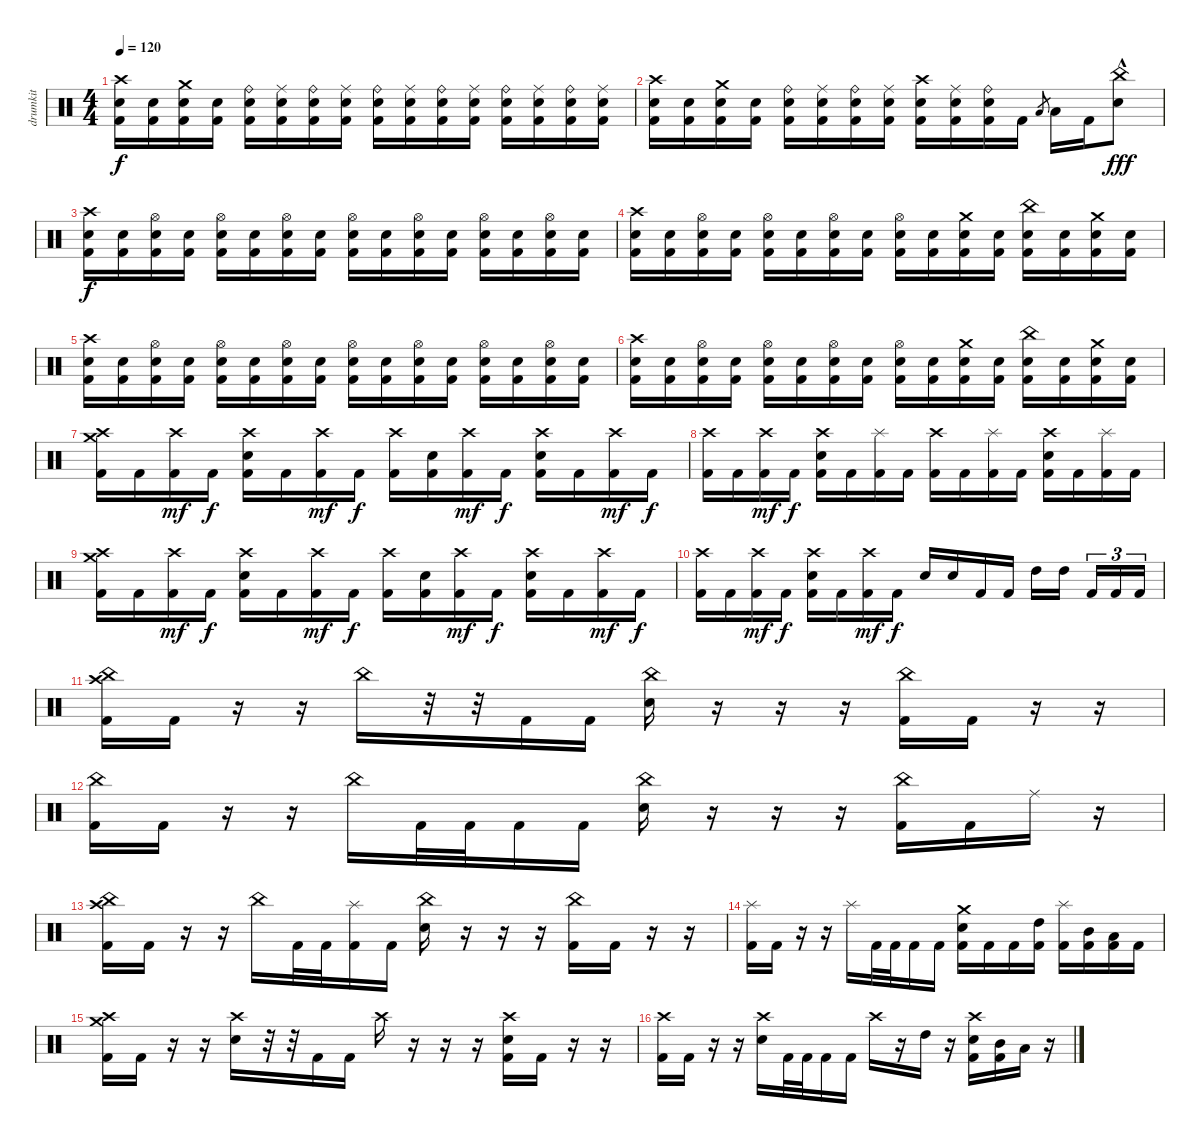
\track ("drumkit" "drumkit") {instrument percussion}
\staff {score}
\articulation defaults
\ts (4 4)
\tempo 120
\clef neutral
\ks c
("Crash high (hit)" "Electric Snare (hit)" "Kick (hit) 2").16{dy f} ("Electric Snare (hit)" "Kick (hit) 2").16 ("Crash medium (hit)" "Electric Snare (hit)" "Kick (hit) 2").16 ("Electric Snare (hit)" "Kick (hit) 2").16 ("Ride (bell)" "Electric Snare (hit)" "Kick (hit) 2").16 ("Ride (middle)" "Electric Snare (hit)" "Kick (hit) 2").16 ("Ride (bell)" "Electric Snare (hit)" "Kick (hit) 2").16 ("Ride (middle)" "Electric Snare (hit)" "Kick (hit) 2").16 ("Ride (bell)" "Electric Snare (hit)" "Kick (hit) 2").16 ("Ride (middle)" "Electric Snare (hit)" "Kick (hit) 2").16 ("Ride (bell)" "Electric Snare (hit)" "Kick (hit) 2").16 ("Ride (middle)" "Electric Snare (hit)" "Kick (hit) 2").16 ("Ride (bell)" "Electric Snare (hit)" "Kick (hit) 2").16 ("Ride (middle)" "Electric Snare (hit)" "Kick (hit) 2").16 ("Ride (bell)" "Electric Snare (hit)" "Kick (hit) 2").16 ("Ride (middle)" "Electric Snare (hit)" "Kick (hit) 2").16 |
("Crash high (hit)" "Electric Snare (hit)" "Kick (hit) 2").16 ("Electric Snare (hit)" "Kick (hit) 2").16 ("Crash medium (hit)" "Electric Snare (hit)" "Kick (hit) 2").16 ("Electric Snare (hit)" "Kick (hit) 2").16 ("Ride (bell)" "Electric Snare (hit)" "Kick (hit) 2").16 ("Ride (middle)" "Electric Snare (hit)" "Kick (hit) 2").16 ("Ride (bell)" "Electric Snare (hit)" "Kick (hit) 2").16 ("Ride (middle)" "Electric Snare (hit)" "Kick (hit) 2").16 ("Crash high (hit)" "Electric Snare (hit)" "Kick (hit) 2").16 ("Ride (middle)" "Electric Snare (hit)" "Kick (hit) 2").16 ("Ride (bell)" "Electric Snare (hit)" "Kick (hit) 2").16 "Kick (hit) 2".16 "Low Tom (hit)".8{gr} "Low Floor Tom (hit)".16 "Kick (hit) 2".16 ("China (hit)" "Electric Snare (hit)"{hac}).8{dy fff} |
("Crash high (hit)" "Electric Snare (hit)" "Kick (hit) 2").16{dy f} ("Electric Snare (hit)" "Kick (hit) 2").16 ("Hi-Hat (open)" "Electric Snare (hit)" "Kick (hit) 2").16 ("Electric Snare (hit)" "Kick (hit) 2").16 ("Hi-Hat (open)" "Electric Snare (hit)" "Kick (hit) 2").16 ("Electric Snare (hit)" "Kick (hit) 2").16 ("Hi-Hat (open)" "Electric Snare (hit)" "Kick (hit) 2").16 ("Electric Snare (hit)" "Kick (hit) 2").16 ("Hi-Hat (open)" "Electric Snare (hit)" "Kick (hit) 2").16 ("Electric Snare (hit)" "Kick (hit) 2").16 ("Hi-Hat (open)" "Electric Snare (hit)" "Kick (hit) 2").16 ("Electric Snare (hit)" "Kick (hit) 2").16 ("Hi-Hat (open)" "Electric Snare (hit)" "Kick (hit) 2").16 ("Electric Snare (hit)" "Kick (hit) 2").16 ("Hi-Hat (open)" "Electric Snare (hit)" "Kick (hit) 2").16 ("Electric Snare (hit)" "Kick (hit) 2").16 |
("Crash high (hit)" "Electric Snare (hit)" "Kick (hit) 2").16 ("Electric Snare (hit)" "Kick (hit) 2").16 ("Hi-Hat (open)" "Electric Snare (hit)" "Kick (hit) 2").16 ("Electric Snare (hit)" "Kick (hit) 2").16 ("Hi-Hat (open)" "Electric Snare (hit)" "Kick (hit) 2").16 ("Electric Snare (hit)" "Kick (hit) 2").16 ("Hi-Hat (open)" "Electric Snare (hit)" "Kick (hit) 2").16 ("Electric Snare (hit)" "Kick (hit) 2").16 ("Hi-Hat (open)" "Electric Snare (hit)" "Kick (hit) 2").16 ("Electric Snare (hit)" "Kick (hit) 2").16 ("Crash medium (hit)" "Electric Snare (hit)" "Kick (hit) 2").16 ("Electric Snare (hit)" "Kick (hit) 2").16 ("China (hit)" "Electric Snare (hit)" "Kick (hit) 2").16 ("Electric Snare (hit)" "Kick (hit) 2").16 ("Crash medium (hit)" "Electric Snare (hit)" "Kick (hit) 2").16 ("Electric Snare (hit)" "Kick (hit) 2").16 |
("Crash high (hit)" "Electric Snare (hit)" "Kick (hit) 2").16 ("Electric Snare (hit)" "Kick (hit) 2").16 ("Hi-Hat (open)" "Electric Snare (hit)" "Kick (hit) 2").16 ("Electric Snare (hit)" "Kick (hit) 2").16 ("Hi-Hat (open)" "Electric Snare (hit)" "Kick (hit) 2").16 ("Electric Snare (hit)" "Kick (hit) 2").16 ("Hi-Hat (open)" "Electric Snare (hit)" "Kick (hit) 2").16 ("Electric Snare (hit)" "Kick (hit) 2").16 ("Hi-Hat (open)" "Electric Snare (hit)" "Kick (hit) 2").16 ("Electric Snare (hit)" "Kick (hit) 2").16 ("Hi-Hat (open)" "Electric Snare (hit)" "Kick (hit) 2").16 ("Electric Snare (hit)" "Kick (hit) 2").16 ("Hi-Hat (open)" "Electric Snare (hit)" "Kick (hit) 2").16 ("Electric Snare (hit)" "Kick (hit) 2").16 ("Hi-Hat (open)" "Electric Snare (hit)" "Kick (hit) 2").16 ("Electric Snare (hit)" "Kick (hit) 2").16 |
("Crash high (hit)" "Electric Snare (hit)" "Kick (hit) 2").16 ("Electric Snare (hit)" "Kick (hit) 2").16 ("Hi-Hat (open)" "Electric Snare (hit)" "Kick (hit) 2").16 ("Electric Snare (hit)" "Kick (hit) 2").16 ("Hi-Hat (open)" "Electric Snare (hit)" "Kick (hit) 2").16 ("Electric Snare (hit)" "Kick (hit) 2").16 ("Hi-Hat (open)" "Electric Snare (hit)" "Kick (hit) 2").16 ("Electric Snare (hit)" "Kick (hit) 2").16 ("Hi-Hat (open)" "Electric Snare (hit)" "Kick (hit) 2").16 ("Electric Snare (hit)" "Kick (hit) 2").16 ("Crash medium (hit)" "Electric Snare (hit)" "Kick (hit) 2").16 ("Electric Snare (hit)" "Kick (hit) 2").16 ("China (hit)" "Electric Snare (hit)" "Kick (hit) 2").16 ("Electric Snare (hit)" "Kick (hit) 2").16 ("Crash medium (hit)" "Electric Snare (hit)" "Kick (hit) 2").16 ("Electric Snare (hit)" "Kick (hit) 2").16 |
("Crash high (hit)" "Crash medium (hit)" "Kick (hit) 2").16 "Kick (hit) 2".16 ("Crash high (hit)" "Kick (hit) 2").16{dy mf} "Kick (hit) 2".16{dy f} ("Crash high (hit)" "Electric Snare (hit)" "Kick (hit) 2").16 "Kick (hit) 2".16 ("Crash high (hit)" "Kick (hit) 2").16{dy mf} "Kick (hit) 2".16{dy f} ("Crash high (hit)" "Kick (hit) 2").16 ("Electric Snare (hit)" "Kick (hit) 2").16 ("Crash high (hit)" "Kick (hit) 2").16{dy mf} "Kick (hit) 2".16{dy f} ("Crash high (hit)" "Electric Snare (hit)" "Kick (hit) 2").16 "Kick (hit) 2".16 ("Crash high (hit)" "Kick (hit) 2").16{dy mf} "Kick (hit) 2".16{dy f} |
("Crash high (hit)" "Kick (hit) 2").16 "Kick (hit) 2".16 ("Crash high (hit)" "Kick (hit) 2").16{dy mf} "Kick (hit) 2".16{dy f} ("Crash high (hit)" "Electric Snare (hit)" "Kick (hit) 2").16 "Kick (hit) 2".16 ("Splash (hit)" "Kick (hit) 2").16 "Kick (hit) 2".16 ("Crash high (hit)" "Kick (hit) 2").16 "Kick (hit) 2".16 ("Splash (hit)" "Kick (hit) 2").16 "Kick (hit) 2".16 ("Crash high (hit)" "Electric Snare (hit)" "Kick (hit) 2").16 "Kick (hit) 2".16 ("Splash (hit)" "Kick (hit) 2").16 "Kick (hit) 2".16 |
("Crash high (hit)" "Crash medium (hit)" "Kick (hit) 2").16 "Kick (hit) 2".16 ("Crash high (hit)" "Kick (hit) 2").16{dy mf} "Kick (hit) 2".16{dy f} ("Crash high (hit)" "Electric Snare (hit)" "Kick (hit) 2").16 "Kick (hit) 2".16 ("Crash high (hit)" "Kick (hit) 2").16{dy mf} "Kick (hit) 2".16{dy f} ("Crash high (hit)" "Kick (hit) 2").16 ("Electric Snare (hit)" "Kick (hit) 2").16 ("Crash high (hit)" "Kick (hit) 2").16{dy mf} "Kick (hit) 2".16{dy f} ("Crash high (hit)" "Electric Snare (hit)" "Kick (hit) 2").16 "Kick (hit) 2".16 ("Crash high (hit)" "Kick (hit) 2").16{dy mf} "Kick (hit) 2".16{dy f} |
("Crash high (hit)" "Kick (hit) 2").16 "Kick (hit) 2".16 ("Crash high (hit)" "Kick (hit) 2").16{dy mf} "Kick (hit) 2".16{dy f} ("Crash high (hit)" "Electric Snare (hit)" "Kick (hit) 2").16 "Kick (hit) 2".16 ("Crash high (hit)" "Kick (hit) 2").16{dy mf} "Kick (hit) 2".16{dy f} "Electric Snare (hit)".16 "Electric Snare (hit)".16 "Kick (hit) 2".16 "Kick (hit) 2".16 "High Tom (hit)".16 "High Tom (hit)".16{beam splitsecondary} "Kick (hit) 2".16{tu (3 2)} "Kick (hit) 2".16{tu (3 2)} "Kick (hit) 2".16{tu (3 2)} |
("China (hit)" "Crash high (hit)" "Kick (hit) 2").16 "Kick (hit) 2".16 r.16 r.16 "China (hit)".16 r.32 r.32 "Kick (hit) 2".16 "Kick (hit) 2".16 ("China (hit)" "Electric Snare (hit)").16 r.16 r.16 r.16 ("China (hit)" "Kick (hit) 2").16 "Kick (hit) 2".16 r.16 r.16 |
("China (hit)" "Kick (hit) 2").16 "Kick (hit) 2".16 r.16 r.16 "China (hit)".16 "Kick (hit) 2".32 "Kick (hit) 2".32 "Kick (hit) 2".16 "Kick (hit) 2".16 ("China (hit)" "Electric Snare (hit)").16 r.16 r.16 r.16 ("China (hit)" "Kick (hit) 2").16 "Kick (hit) 2".16 "Ride (middle)".16 r.16 |
("China (hit)" "Crash high (hit)" "Kick (hit) 2").16 "Kick (hit) 2".16 r.16 r.16 "China (hit)".16 "Kick (hit) 2".32 "Kick (hit) 2".32 ("Splash (hit)" "Kick (hit) 2").16 "Kick (hit) 2".16 ("China (hit)" "Electric Snare (hit)").16 r.16 r.16 r.16 ("China (hit)" "Kick (hit) 2").16 "Kick (hit) 2".16 r.16 r.16 |
("Splash (hit)" "Kick (hit) 2").16 "Kick (hit) 2".16 r.16 r.16 "Splash (hit)".16 "Kick (hit) 2".32 "Kick (hit) 2".32 "Kick (hit) 2".16 "Kick (hit) 2".16 ("Crash medium (hit)" "Electric Snare (hit)" "Kick (hit) 2").16 "Kick (hit) 2".16 "Kick (hit) 2".16 ("High Tom (hit)" "Kick (hit) 2").16 ("Splash (hit)" "Kick (hit) 2").16 ("Mid Tom (hit)" "Kick (hit) 2").16 ("Low Tom (hit)" "Kick (hit) 2").16 "Kick (hit) 2".16 |
("Crash high (hit)" "Crash medium (hit)" "Kick (hit) 2").16 "Kick (hit) 2".16 r.16 r.16 ("Crash high (hit)" "Electric Snare (hit)").16 r.32 r.32 "Kick (hit) 2".16 "Kick (hit) 2".16 "Crash high (hit)".16 r.16 r.16 r.16 ("Crash high (hit)" "Electric Snare (hit)" "Kick (hit) 2").16 "Kick (hit) 2".16 r.16 r.16 |
("Crash high (hit)" "Kick (hit) 2").16 "Kick (hit) 2".16 r.16 r.16 ("Crash high (hit)" "Electric Snare (hit)").16 "Kick (hit) 2".32 "Kick (hit) 2".32 "Kick (hit) 2".16 "Kick (hit) 2".16 "Crash high (hit)".16 r.16 "High Tom (hit)".16 r.16 ("Crash high (hit)" "Electric Snare (hit)" "Kick (hit) 2").16 ("Mid Tom (hit)" "Kick (hit) 2").16 "Low Tom (hit)".16 r.16
